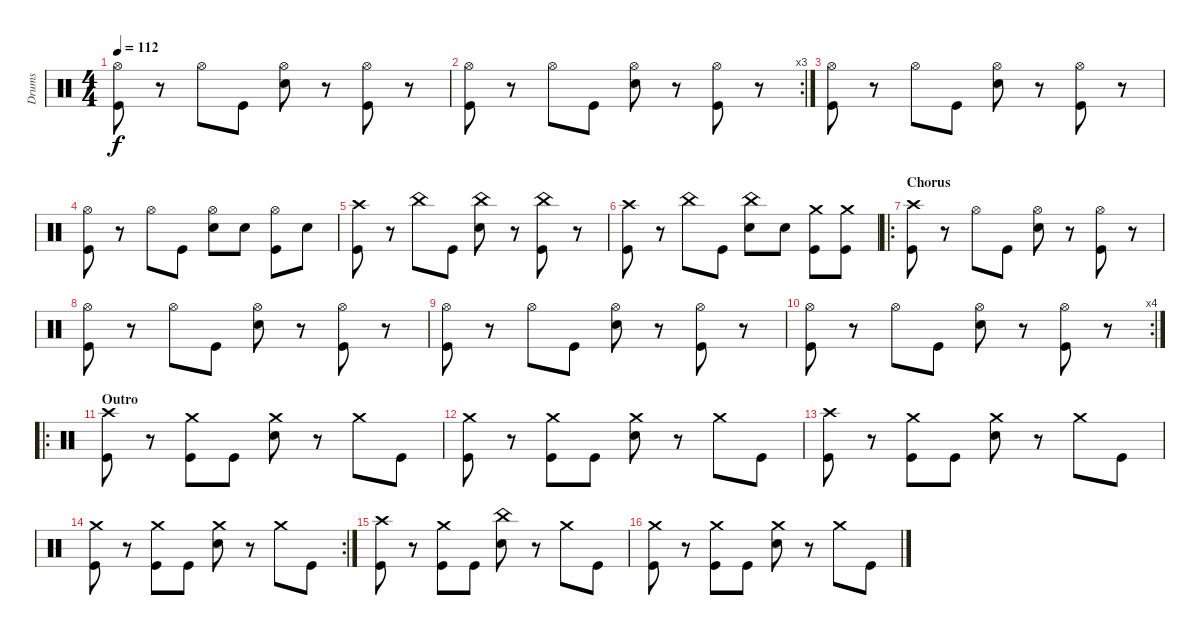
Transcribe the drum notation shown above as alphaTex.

\track ("Drums" "Drums") {instrument percussion}
\staff {score}
\articulation defaults
\ts (4 4)
\tempo 112
\clef neutral
\ks c
("Hi-Hat (open)" "Kick (hit)").8{dy f} r.8 "Hi-Hat (open)".8 "Kick (hit)".8 ("Hi-Hat (open)" "Snare (hit) 2").8 r.8 ("Hi-Hat (open)" "Kick (hit)").8 r.8 |
\rc 3
("Hi-Hat (open)" "Kick (hit)").8 r.8 "Hi-Hat (open)".8 "Kick (hit)".8 ("Hi-Hat (open)" "Snare (hit) 2").8 r.8 ("Hi-Hat (open)" "Kick (hit)").8 r.8 |
("Hi-Hat (open)" "Kick (hit)").8 r.8 "Hi-Hat (open)".8 "Kick (hit)".8 ("Hi-Hat (open)" "Snare (hit) 2").8 r.8 ("Hi-Hat (open)" "Kick (hit)").8 r.8 |
("Hi-Hat (open)" "Kick (hit)").8 r.8 "Hi-Hat (open)".8 "Kick (hit)".8 ("Hi-Hat (open)" "Snare (hit) 2").8 "Snare (hit) 2".8 ("Hi-Hat (open)" "Kick (hit)").8 "Snare (hit) 2".8 |
("Crash high (hit)" "Kick (hit)").8 r.8 "China (hit)".8 "Kick (hit)".8 ("China (hit)" "Snare (hit) 2").8 r.8 ("China (hit)" "Kick (hit)").8 r.8 |
("Crash high (hit)" "Kick (hit)").8 r.8 "China (hit)".8 "Kick (hit)".8 ("China (hit)" "Snare (hit) 2").8 "Snare (hit) 2".8 ("Crash medium (hit)" "Kick (hit)").8 ("Crash medium (hit)" "Kick (hit)").8 |
\ro
\section ("" "Chorus")
("Crash high (hit)" "Kick (hit)").8 r.8 "Hi-Hat (open)".8 "Kick (hit)".8 ("Hi-Hat (open)" "Snare (hit) 2").8 r.8 ("Hi-Hat (open)" "Kick (hit)").8 r.8 |
("Hi-Hat (open)" "Kick (hit)").8 r.8 "Hi-Hat (open)".8 "Kick (hit)".8 ("Hi-Hat (open)" "Snare (hit) 2").8 r.8 ("Hi-Hat (open)" "Kick (hit)").8 r.8 |
("Hi-Hat (open)" "Kick (hit)").8 r.8 "Hi-Hat (open)".8 "Kick (hit)".8 ("Hi-Hat (open)" "Snare (hit) 2").8 r.8 ("Hi-Hat (open)" "Kick (hit)").8 r.8 |
\rc 4
("Hi-Hat (open)" "Kick (hit)").8 r.8 "Hi-Hat (open)".8 "Kick (hit)".8 ("Hi-Hat (open)" "Snare (hit) 2").8 r.8 ("Hi-Hat (open)" "Kick (hit)").8 r.8 |
\ro
\section ("" "Outro")
("Crash high (hit)" "Kick (hit)").8 r.8 ("Crash medium (hit)" "Kick (hit)").8 "Kick (hit)".8 ("Crash medium (hit)" "Snare (hit) 2").8 r.8 "Crash medium (hit)".8 "Kick (hit)".8 |
("Crash medium (hit)" "Kick (hit)").8 r.8 ("Crash medium (hit)" "Kick (hit)").8 "Kick (hit)".8 ("Crash medium (hit)" "Snare (hit) 2").8 r.8 "Crash medium (hit)".8 "Kick (hit)".8 |
("Crash high (hit)" "Kick (hit)").8 r.8 ("Crash medium (hit)" "Kick (hit)").8 "Kick (hit)".8 ("Crash medium (hit)" "Snare (hit) 2").8 r.8 "Crash medium (hit)".8 "Kick (hit)".8 |
\rc 2
("Crash medium (hit)" "Kick (hit)").8 r.8 ("Crash medium (hit)" "Kick (hit)").8 "Kick (hit)".8 ("Crash medium (hit)" "Snare (hit) 2").8 r.8 "Crash medium (hit)".8 "Kick (hit)".8 |
("Crash high (hit)" "Kick (hit)").8 r.8 ("Crash medium (hit)" "Kick (hit)").8 "Kick (hit)".8 ("China (hit)" "Snare (hit) 2").8 r.8 "Crash medium (hit)".8 "Kick (hit)".8 |
("Crash medium (hit)" "Kick (hit)").8 r.8 ("Crash medium (hit)" "Kick (hit)").8 "Kick (hit)".8 ("Crash medium (hit)" "Snare (hit) 2").8 r.8 "Crash medium (hit)".8 "Kick (hit)".8
